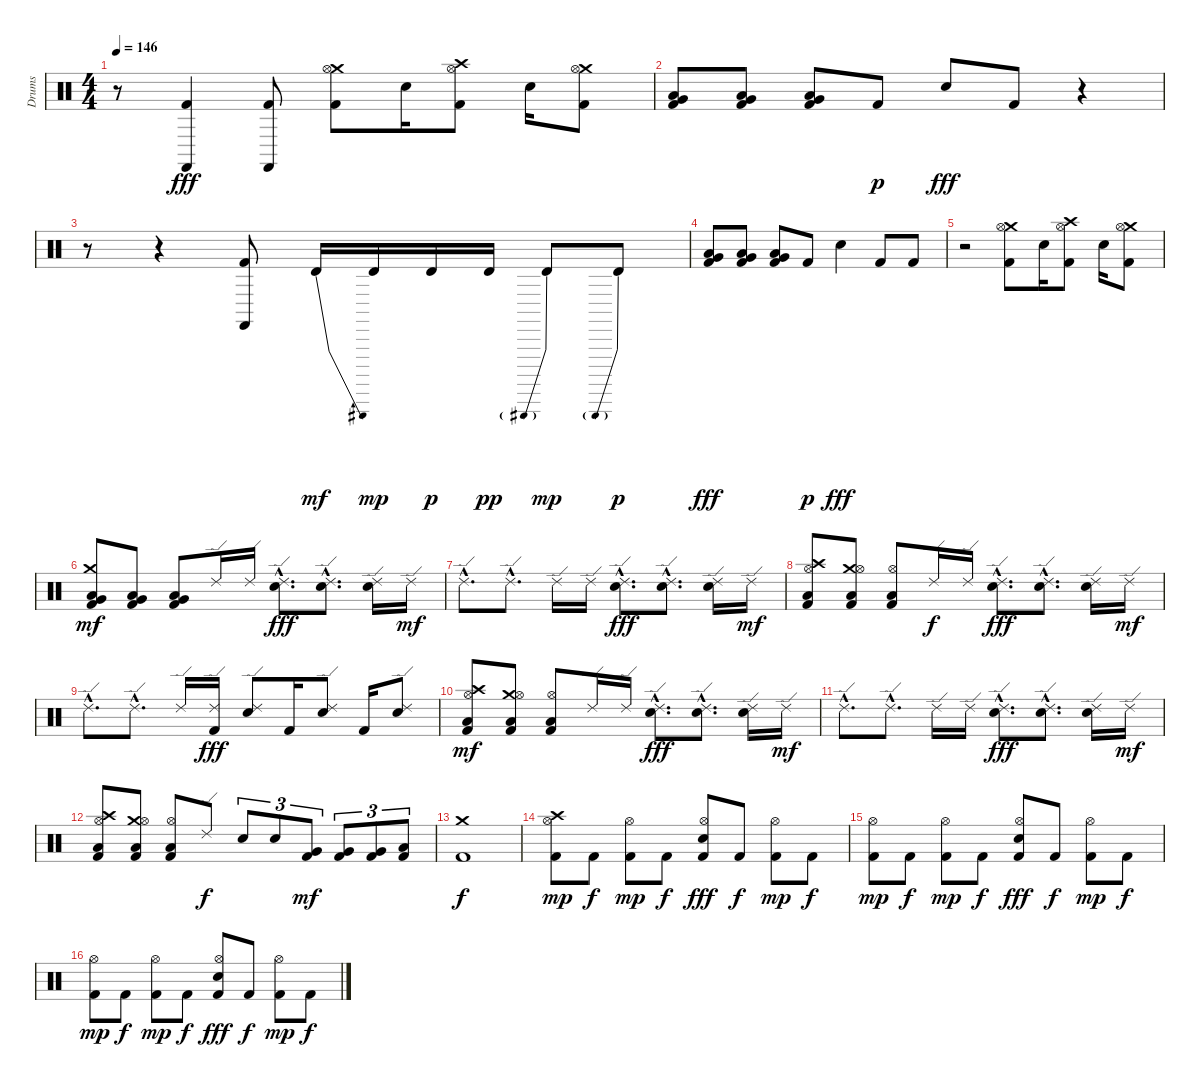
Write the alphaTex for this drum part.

\track ("Drums" "Drums") {instrument percussion}
\staff {score}
\articulation defaults
\ts (4 4)
\tempo 146
\clef neutral
\ks c
r.8{dy fff} ("Castanets (hit)" "Kick (hit) 2").4 ("Castanets (hit)" "Kick (hit) 2").8 ("Crash medium (hit)" "Hi-Hat (open)" "Kick (hit) 2").8 "Snare (hit) 2".16 ("Crash high (hit)" "Hi-Hat (open)" "Kick (hit) 2").8 "Snare (hit) 2".16 ("Crash medium (hit)" "Hi-Hat (open)" "Kick (hit) 2").8 |
("Very Low Tom (hit)" "Low Floor Tom (hit)" "Kick (hit) 2").8 ("Very Low Tom (hit)" "Low Floor Tom (hit)" "Kick (hit) 2").8 ("Very Low Tom (hit)" "Low Floor Tom (hit)" "Kick (hit) 2").8 "Kick (hit) 2".8{dy p} "Snare (hit) 2".8{dy fff} "Kick (hit) 2".8 r.4 |
r.8 r.4 ("Castanets (hit)" "Kick (hit) 2").8 "Timbale high (hit)"{be (bend 0 0 60 1)}.16{dy mf} "Timbale high (hit)".16{dy mp} "Timbale high (hit)".16{dy p} "Timbale high (hit)".16{dy pp} "Timbale high (hit)"{be (prebend 0 1 60 1)}.8{dy mp} "Timbale high (hit)"{be (prebend 0 2 60 2)}.8{dy p} |
("Very Low Tom (hit)" "Low Floor Tom (hit)" "Kick (hit) 2").8{dy fff} ("Very Low Tom (hit)" "Low Floor Tom (hit)" "Kick (hit) 2").8 ("Very Low Tom (hit)" "Low Floor Tom (hit)" "Kick (hit) 2").8 "Kick (hit) 2".8{dy p} "Snare (hit) 2".4{dy fff} "Kick (hit) 2".8 "Kick (hit) 2".8 |
r.2 ("Crash medium (hit)" "Hi-Hat (open)" "Kick (hit) 2").8 "Snare (hit) 2".16 ("Crash high (hit)" "Hi-Hat (open)" "Kick (hit) 2").8 "Snare (hit) 2".16 ("Crash medium (hit)" "Hi-Hat (open)" "Kick (hit) 2").8 |
("Crash medium (hit)" "Very Low Tom (hit)" "Low Floor Tom (hit)" "Kick (hit) 2").8{dy mf} ("Very Low Tom (hit)" "Low Floor Tom (hit)" "Kick (hit) 2").8 ("Very Low Tom (hit)" "Low Floor Tom (hit)" "Kick (hit) 2").8 "Ride (edge) 2".16 "Ride (edge) 2".16 ("Ride (edge) 2"{hac} "Snare (hit) 2"{hac}).8{d dy fff} ("Ride (edge) 2"{hac} "Snare (hit) 2"{hac}).8{d} ("Ride (edge) 2" "Snare (hit) 2").16 "Ride (edge) 2".16{dy mf} |
"Ride (edge) 2"{hac}.8{d} "Ride (edge) 2"{hac}.8{d} "Ride (edge) 2".16 "Ride (edge) 2".16 ("Ride (edge) 2"{hac} "Snare (hit) 2"{hac}).8{d dy fff} ("Ride (edge) 2"{hac} "Snare (hit) 2"{hac}).8{d} ("Ride (edge) 2" "Snare (hit) 2").16 "Ride (edge) 2".16{dy mf} |
("Crash high (hit)" "Hi-Hat (open)" "Low Floor Tom (hit)" "Kick (hit) 2").8 ("Crash medium (hit)" "Hi-Hat (open)" "Low Floor Tom (hit)" "Kick (hit) 2").8 ("Hi-Hat (open)" "Low Floor Tom (hit)" "Kick (hit) 2").8 "Ride (edge) 2".16{dy f} "Ride (edge) 2".16 ("Ride (edge) 2"{hac} "Snare (hit) 2"{hac}).8{d dy fff} ("Ride (edge) 2"{hac} "Snare (hit) 2"{hac}).8{d} ("Ride (edge) 2" "Snare (hit) 2").16 "Ride (edge) 2".16{dy mf} |
"Ride (edge) 2"{hac}.8{d} "Ride (edge) 2"{hac}.8{d} "Ride (edge) 2".16 ("Ride (edge) 2" "Kick (hit) 2").16{dy fff} ("Ride (edge) 2" "Snare (hit) 2").8 "Kick (hit) 2".16 ("Ride (edge) 2" "Snare (hit) 2").8 "Kick (hit) 2".16 ("Ride (edge) 2" "Snare (hit) 2").8 |
("Crash high (hit)" "Hi-Hat (open)" "Low Floor Tom (hit)" "Kick (hit) 2").8{dy mf} ("Crash medium (hit)" "Hi-Hat (open)" "Low Floor Tom (hit)" "Kick (hit) 2").8 ("Hi-Hat (open)" "Low Floor Tom (hit)" "Kick (hit) 2").8 "Ride (edge) 2".16 "Ride (edge) 2".16 ("Ride (edge) 2"{hac} "Snare (hit) 2"{hac}).8{d dy fff} ("Ride (edge) 2"{hac} "Snare (hit) 2"{hac}).8{d} ("Ride (edge) 2" "Snare (hit) 2").16 "Ride (edge) 2".16{dy mf} |
"Ride (edge) 2"{hac}.8{d} "Ride (edge) 2"{hac}.8{d} "Ride (edge) 2".16 "Ride (edge) 2".16 ("Ride (edge) 2"{hac} "Snare (hit) 2"{hac}).8{d dy fff} ("Ride (edge) 2"{hac} "Snare (hit) 2"{hac}).8{d} ("Ride (edge) 2" "Snare (hit) 2").16 "Ride (edge) 2".16{dy mf} |
("Crash high (hit)" "Hi-Hat (open)" "Low Floor Tom (hit)" "Kick (hit) 2").8 ("Crash medium (hit)" "Hi-Hat (open)" "Low Floor Tom (hit)" "Kick (hit) 2").8 ("Hi-Hat (open)" "Low Floor Tom (hit)" "Kick (hit) 2").8 "Ride (edge) 2".8{dy f} "Snare (hit) 2".8{tu (3 2)} "Snare (hit) 2".8{tu (3 2)} ("Very Low Tom (hit)" "Kick (hit) 2").8{tu (3 2) dy mf balance 0} ("Very Low Tom (hit)" "Kick (hit) 2").8{tu (3 2) balance 16} ("Very Low Tom (hit)" "Kick (hit) 2").8{tu (3 2)} ("Low Floor Tom (hit)" "Kick (hit) 2").8{tu (3 2) balance 8} |
("Crash medium (hit)" "Kick (hit) 2").1{dy f} |
("Crash high (hit)" "Hi-Hat (open)" "Kick (hit) 2").8{dy mp} "Kick (hit) 2".8{dy f} ("Hi-Hat (open)" "Kick (hit) 2").8{dy mp} "Kick (hit) 2".8{dy f} ("Hi-Hat (open)" "Snare (hit) 2" "Kick (hit) 2").8{dy fff} "Kick (hit) 2".8{dy f} ("Hi-Hat (open)" "Kick (hit) 2").8{dy mp} "Kick (hit) 2".8{dy f} |
("Hi-Hat (open)" "Kick (hit) 2").8{dy mp} "Kick (hit) 2".8{dy f} ("Hi-Hat (open)" "Kick (hit) 2").8{dy mp} "Kick (hit) 2".8{dy f} ("Hi-Hat (open)" "Snare (hit) 2" "Kick (hit) 2").8{dy fff} "Kick (hit) 2".8{dy f} ("Hi-Hat (open)" "Kick (hit) 2").8{dy mp} "Kick (hit) 2".8{dy f} |
("Hi-Hat (open)" "Kick (hit) 2").8{dy mp} "Kick (hit) 2".8{dy f} ("Hi-Hat (open)" "Kick (hit) 2").8{dy mp} "Kick (hit) 2".8{dy f} ("Hi-Hat (open)" "Snare (hit) 2" "Kick (hit) 2").8{dy fff} "Kick (hit) 2".8{dy f} ("Hi-Hat (open)" "Kick (hit) 2").8{dy mp} "Kick (hit) 2".8{dy f}
